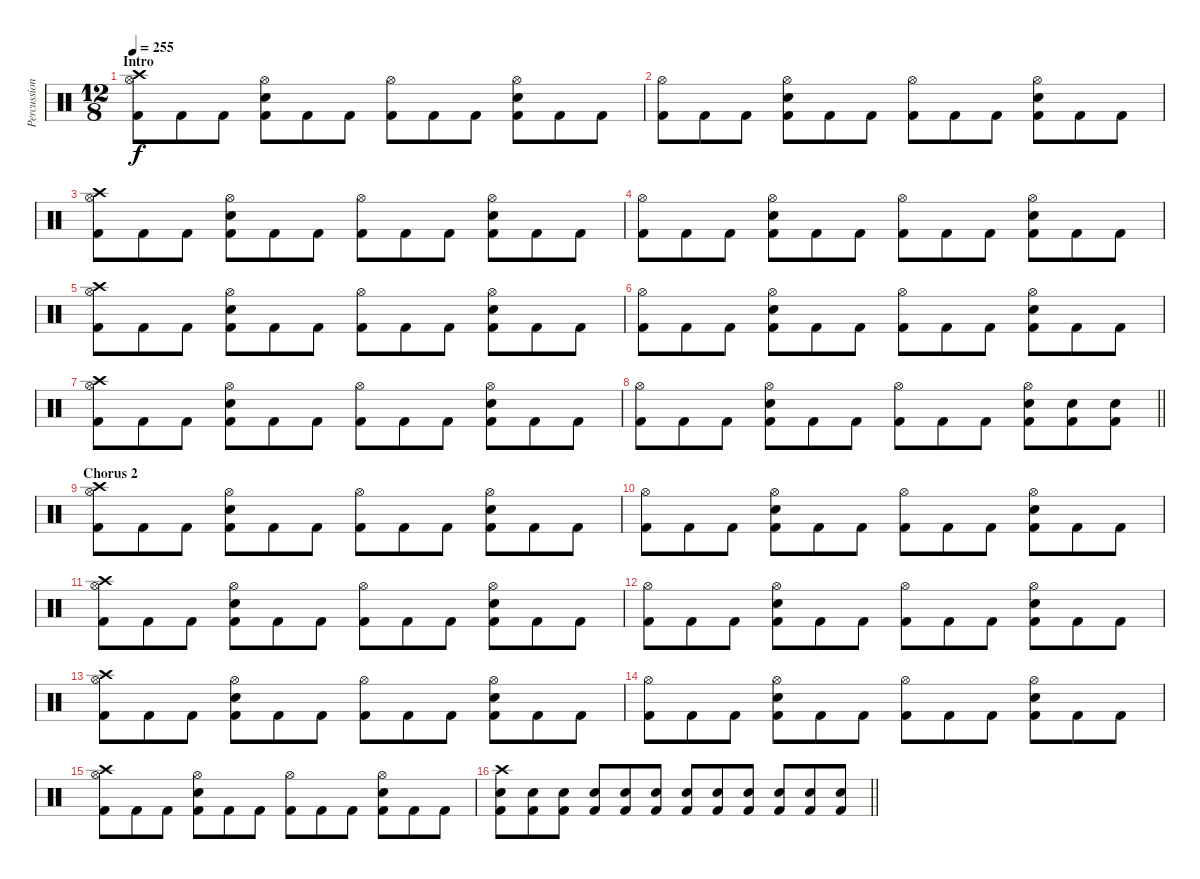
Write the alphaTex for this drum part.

\track ("Percussion" "Percussion") {instrument percussion}
\staff {score}
\articulation defaults
\ts (12 8)
\section ("" "Intro")
\tempo 255
\clef neutral
\ks c
("Crash high (hit)" "Hi-Hat (open)" "Kick (hit) 2").8{dy f} "Kick (hit) 2".8 "Kick (hit) 2".8 ("Hi-Hat (open)" "Snare (hit) 2" "Kick (hit) 2").8 "Kick (hit) 2".8 "Kick (hit) 2".8 ("Hi-Hat (open)" "Kick (hit) 2").8 "Kick (hit) 2".8 "Kick (hit) 2".8 ("Hi-Hat (open)" "Snare (hit) 2" "Kick (hit) 2").8 "Kick (hit) 2".8 "Kick (hit) 2".8 |
("Hi-Hat (open)" "Kick (hit) 2").8 "Kick (hit) 2".8 "Kick (hit) 2".8 ("Hi-Hat (open)" "Snare (hit) 2" "Kick (hit) 2").8 "Kick (hit) 2".8 "Kick (hit) 2".8 ("Hi-Hat (open)" "Kick (hit) 2").8 "Kick (hit) 2".8 "Kick (hit) 2".8 ("Hi-Hat (open)" "Snare (hit) 2" "Kick (hit) 2").8 "Kick (hit) 2".8 "Kick (hit) 2".8 |
("Crash high (hit)" "Hi-Hat (open)" "Kick (hit) 2").8 "Kick (hit) 2".8 "Kick (hit) 2".8 ("Hi-Hat (open)" "Snare (hit) 2" "Kick (hit) 2").8 "Kick (hit) 2".8 "Kick (hit) 2".8 ("Hi-Hat (open)" "Kick (hit) 2").8 "Kick (hit) 2".8 "Kick (hit) 2".8 ("Hi-Hat (open)" "Snare (hit) 2" "Kick (hit) 2").8 "Kick (hit) 2".8 "Kick (hit) 2".8 |
("Hi-Hat (open)" "Kick (hit) 2").8 "Kick (hit) 2".8 "Kick (hit) 2".8 ("Hi-Hat (open)" "Snare (hit) 2" "Kick (hit) 2").8 "Kick (hit) 2".8 "Kick (hit) 2".8 ("Hi-Hat (open)" "Kick (hit) 2").8 "Kick (hit) 2".8 "Kick (hit) 2".8 ("Hi-Hat (open)" "Snare (hit) 2" "Kick (hit) 2").8 "Kick (hit) 2".8 "Kick (hit) 2".8 |
("Crash high (hit)" "Hi-Hat (open)" "Kick (hit) 2").8 "Kick (hit) 2".8 "Kick (hit) 2".8 ("Hi-Hat (open)" "Snare (hit) 2" "Kick (hit) 2").8 "Kick (hit) 2".8 "Kick (hit) 2".8 ("Hi-Hat (open)" "Kick (hit) 2").8 "Kick (hit) 2".8 "Kick (hit) 2".8 ("Hi-Hat (open)" "Snare (hit) 2" "Kick (hit) 2").8 "Kick (hit) 2".8 "Kick (hit) 2".8 |
("Hi-Hat (open)" "Kick (hit) 2").8 "Kick (hit) 2".8 "Kick (hit) 2".8 ("Hi-Hat (open)" "Snare (hit) 2" "Kick (hit) 2").8 "Kick (hit) 2".8 "Kick (hit) 2".8 ("Hi-Hat (open)" "Kick (hit) 2").8 "Kick (hit) 2".8 "Kick (hit) 2".8 ("Hi-Hat (open)" "Snare (hit) 2" "Kick (hit) 2").8 "Kick (hit) 2".8 "Kick (hit) 2".8 |
("Crash high (hit)" "Hi-Hat (open)" "Kick (hit) 2").8 "Kick (hit) 2".8 "Kick (hit) 2".8 ("Hi-Hat (open)" "Snare (hit) 2" "Kick (hit) 2").8 "Kick (hit) 2".8 "Kick (hit) 2".8 ("Hi-Hat (open)" "Kick (hit) 2").8 "Kick (hit) 2".8 "Kick (hit) 2".8 ("Hi-Hat (open)" "Snare (hit) 2" "Kick (hit) 2").8 "Kick (hit) 2".8 "Kick (hit) 2".8 |
\barLineRight lightlight
("Hi-Hat (open)" "Kick (hit) 2").8 "Kick (hit) 2".8 "Kick (hit) 2".8 ("Hi-Hat (open)" "Snare (hit) 2" "Kick (hit) 2").8 "Kick (hit) 2".8 "Kick (hit) 2".8 ("Hi-Hat (open)" "Kick (hit) 2").8 "Kick (hit) 2".8 "Kick (hit) 2".8 ("Hi-Hat (open)" "Snare (hit) 2" "Kick (hit) 2").8 ("Snare (hit) 2" "Kick (hit) 2").8 ("Snare (hit) 2" "Kick (hit) 2").8 |
\section ("" "Chorus 2")
("Crash high (hit)" "Hi-Hat (open)" "Kick (hit) 2").8 "Kick (hit) 2".8 "Kick (hit) 2".8 ("Hi-Hat (open)" "Snare (hit) 2" "Kick (hit) 2").8 "Kick (hit) 2".8 "Kick (hit) 2".8 ("Hi-Hat (open)" "Kick (hit) 2").8 "Kick (hit) 2".8 "Kick (hit) 2".8 ("Hi-Hat (open)" "Snare (hit) 2" "Kick (hit) 2").8 "Kick (hit) 2".8 "Kick (hit) 2".8 |
("Hi-Hat (open)" "Kick (hit) 2").8 "Kick (hit) 2".8 "Kick (hit) 2".8 ("Hi-Hat (open)" "Snare (hit) 2" "Kick (hit) 2").8 "Kick (hit) 2".8 "Kick (hit) 2".8 ("Hi-Hat (open)" "Kick (hit) 2").8 "Kick (hit) 2".8 "Kick (hit) 2".8 ("Hi-Hat (open)" "Snare (hit) 2" "Kick (hit) 2").8 "Kick (hit) 2".8 "Kick (hit) 2".8 |
("Crash high (hit)" "Hi-Hat (open)" "Kick (hit) 2").8 "Kick (hit) 2".8 "Kick (hit) 2".8 ("Hi-Hat (open)" "Snare (hit) 2" "Kick (hit) 2").8 "Kick (hit) 2".8 "Kick (hit) 2".8 ("Hi-Hat (open)" "Kick (hit) 2").8 "Kick (hit) 2".8 "Kick (hit) 2".8 ("Hi-Hat (open)" "Snare (hit) 2" "Kick (hit) 2").8 "Kick (hit) 2".8 "Kick (hit) 2".8 |
("Hi-Hat (open)" "Kick (hit) 2").8 "Kick (hit) 2".8 "Kick (hit) 2".8 ("Hi-Hat (open)" "Snare (hit) 2" "Kick (hit) 2").8 "Kick (hit) 2".8 "Kick (hit) 2".8 ("Hi-Hat (open)" "Kick (hit) 2").8 "Kick (hit) 2".8 "Kick (hit) 2".8 ("Hi-Hat (open)" "Snare (hit) 2" "Kick (hit) 2").8 "Kick (hit) 2".8 "Kick (hit) 2".8 |
("Crash high (hit)" "Hi-Hat (open)" "Kick (hit) 2").8 "Kick (hit) 2".8 "Kick (hit) 2".8 ("Hi-Hat (open)" "Snare (hit) 2" "Kick (hit) 2").8 "Kick (hit) 2".8 "Kick (hit) 2".8 ("Hi-Hat (open)" "Kick (hit) 2").8 "Kick (hit) 2".8 "Kick (hit) 2".8 ("Hi-Hat (open)" "Snare (hit) 2" "Kick (hit) 2").8 "Kick (hit) 2".8 "Kick (hit) 2".8 |
("Hi-Hat (open)" "Kick (hit) 2").8 "Kick (hit) 2".8 "Kick (hit) 2".8 ("Hi-Hat (open)" "Snare (hit) 2" "Kick (hit) 2").8 "Kick (hit) 2".8 "Kick (hit) 2".8 ("Hi-Hat (open)" "Kick (hit) 2").8 "Kick (hit) 2".8 "Kick (hit) 2".8 ("Hi-Hat (open)" "Snare (hit) 2" "Kick (hit) 2").8 "Kick (hit) 2".8 "Kick (hit) 2".8 |
("Crash high (hit)" "Hi-Hat (open)" "Kick (hit) 2").8 "Kick (hit) 2".8 "Kick (hit) 2".8 ("Hi-Hat (open)" "Snare (hit) 2" "Kick (hit) 2").8 "Kick (hit) 2".8 "Kick (hit) 2".8 ("Hi-Hat (open)" "Kick (hit) 2").8 "Kick (hit) 2".8 "Kick (hit) 2".8 ("Hi-Hat (open)" "Snare (hit) 2" "Kick (hit) 2").8 "Kick (hit) 2".8 "Kick (hit) 2".8 |
\barLineRight lightlight
("Crash high (hit)" "Snare (hit) 2" "Kick (hit) 2").8 ("Snare (hit) 2" "Kick (hit) 2").8 ("Snare (hit) 2" "Kick (hit) 2").8 ("Snare (hit) 2" "Kick (hit) 2").8 ("Snare (hit) 2" "Kick (hit) 2").8 ("Snare (hit) 2" "Kick (hit) 2").8 ("Snare (hit) 2" "Kick (hit) 2").8 ("Snare (hit) 2" "Kick (hit) 2").8 ("Snare (hit) 2" "Kick (hit) 2").8 ("Snare (hit) 2" "Kick (hit) 2").8 ("Snare (hit) 2" "Kick (hit) 2").8 ("Snare (hit) 2" "Kick (hit) 2").8
